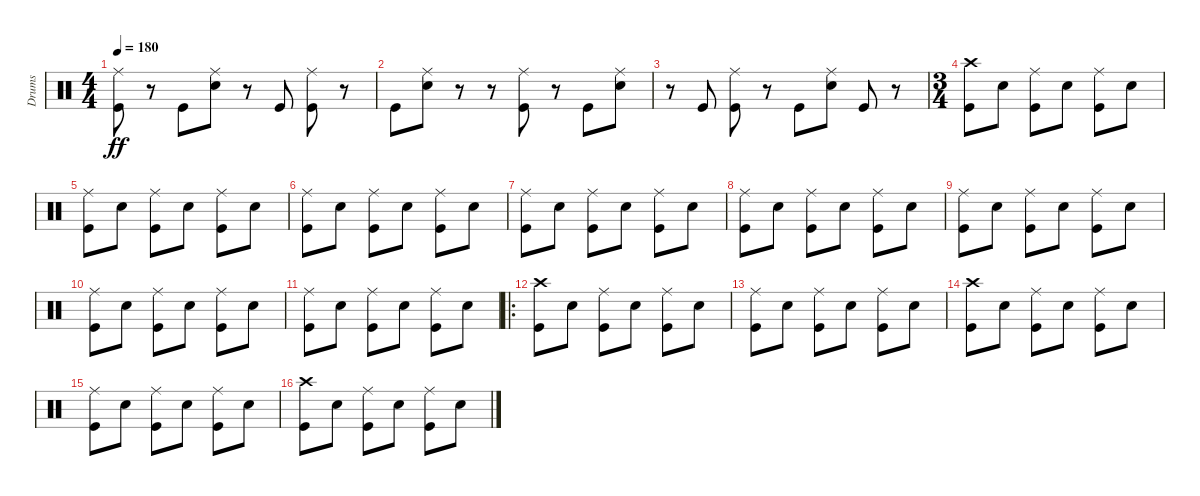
\track ("Drums" "Drums") {instrument percussion}
\staff {score}
\articulation defaults
\ts (4 4)
\tempo 180
\clef neutral
\ks c
("Ride (middle)" "Kick (hit)").8{dy ff} r.8 "Kick (hit)".8 ("Ride (middle)" "Snare (hit) 2").8 r.8 "Kick (hit)".8 ("Ride (middle)" "Kick (hit)").8 r.8 |
"Kick (hit)".8 ("Ride (middle)" "Snare (hit) 2").8 r.8 r.8 ("Ride (middle)" "Kick (hit)").8 r.8 "Kick (hit)".8 ("Ride (middle)" "Snare (hit) 2").8 |
r.8 "Kick (hit)".8 ("Ride (middle)" "Kick (hit)").8 r.8 "Kick (hit)".8 ("Ride (middle)" "Snare (hit) 2").8 "Kick (hit)".8 r.8 |
\ts (3 4)
("Crash high (hit)" "Kick (hit)").8 "Snare (hit) 2".8 ("Ride (middle)" "Kick (hit)").8 "Snare (hit) 2".8 ("Ride (middle)" "Kick (hit)").8 "Snare (hit) 2".8 |
("Ride (middle)" "Kick (hit)").8 "Snare (hit) 2".8 ("Ride (middle)" "Kick (hit)").8 "Snare (hit) 2".8 ("Ride (middle)" "Kick (hit)").8 "Snare (hit) 2".8 |
("Ride (middle)" "Kick (hit)").8 "Snare (hit) 2".8 ("Ride (middle)" "Kick (hit)").8 "Snare (hit) 2".8 ("Ride (middle)" "Kick (hit)").8 "Snare (hit) 2".8 |
("Ride (middle)" "Kick (hit)").8 "Snare (hit) 2".8 ("Ride (middle)" "Kick (hit)").8 "Snare (hit) 2".8 ("Ride (middle)" "Kick (hit)").8 "Snare (hit) 2".8 |
("Ride (middle)" "Kick (hit)").8 "Snare (hit) 2".8 ("Ride (middle)" "Kick (hit)").8 "Snare (hit) 2".8 ("Ride (middle)" "Kick (hit)").8 "Snare (hit) 2".8 |
("Ride (middle)" "Kick (hit)").8 "Snare (hit) 2".8 ("Ride (middle)" "Kick (hit)").8 "Snare (hit) 2".8 ("Ride (middle)" "Kick (hit)").8 "Snare (hit) 2".8 |
("Ride (middle)" "Kick (hit)").8 "Snare (hit) 2".8 ("Ride (middle)" "Kick (hit)").8 "Snare (hit) 2".8 ("Ride (middle)" "Kick (hit)").8 "Snare (hit) 2".8 |
("Ride (middle)" "Kick (hit)").8 "Snare (hit) 2".8 ("Ride (middle)" "Kick (hit)").8 "Snare (hit) 2".8 ("Ride (middle)" "Kick (hit)").8 "Snare (hit) 2".8 |
\ro
("Crash high (hit)" "Kick (hit)").8 "Snare (hit) 2".8 ("Ride (middle)" "Kick (hit)").8 "Snare (hit) 2".8 ("Ride (middle)" "Kick (hit)").8 "Snare (hit) 2".8 |
("Ride (middle)" "Kick (hit)").8 "Snare (hit) 2".8 ("Ride (middle)" "Kick (hit)").8 "Snare (hit) 2".8 ("Ride (middle)" "Kick (hit)").8 "Snare (hit) 2".8 |
("Crash high (hit)" "Kick (hit)").8 "Snare (hit) 2".8 ("Ride (middle)" "Kick (hit)").8 "Snare (hit) 2".8 ("Ride (middle)" "Kick (hit)").8 "Snare (hit) 2".8 |
("Ride (middle)" "Kick (hit)").8 "Snare (hit) 2".8 ("Ride (middle)" "Kick (hit)").8 "Snare (hit) 2".8 ("Ride (middle)" "Kick (hit)").8 "Snare (hit) 2".8 |
("Crash high (hit)" "Kick (hit)").8 "Snare (hit) 2".8 ("Ride (middle)" "Kick (hit)").8 "Snare (hit) 2".8 ("Ride (middle)" "Kick (hit)").8 "Snare (hit) 2".8
